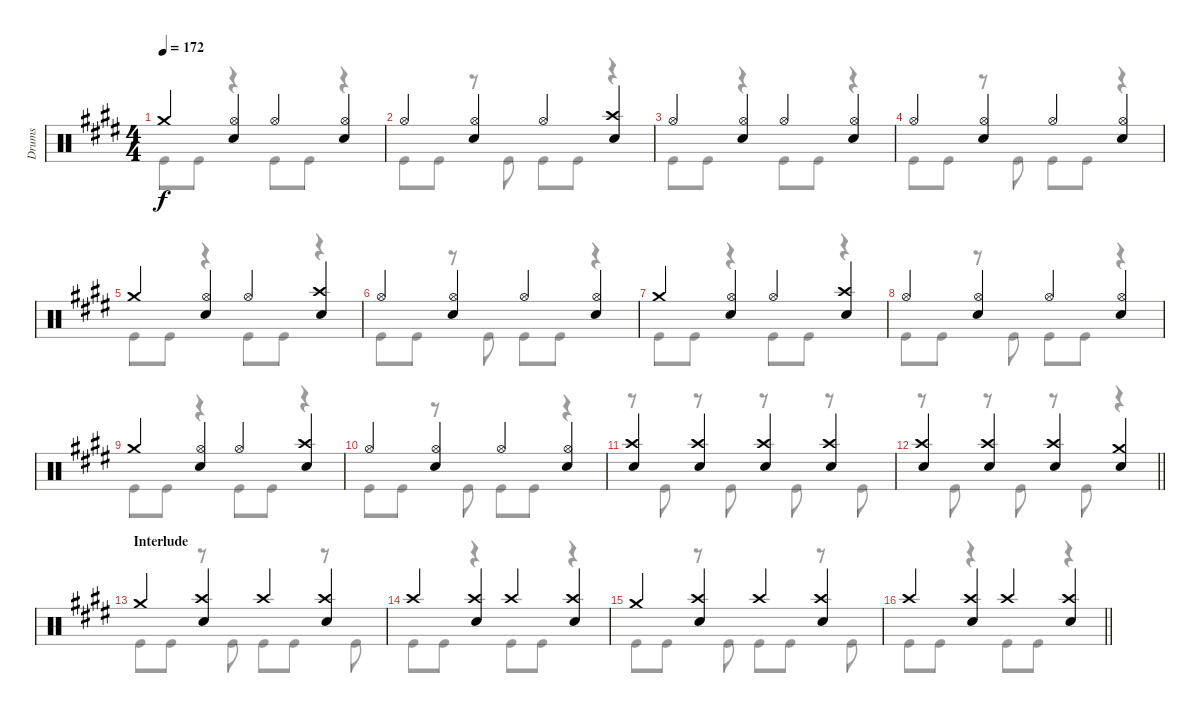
\track ("Drums" "Drums") {instrument percussion}
\staff {score}
\articulation defaults
\voice
\ts (4 4)
\tempo 172
\clef neutral
\ks e "Crash medium (hit)".4{dy f}
("Hi-Hat (open)" "Electric Snare (hit)").4 "Hi-Hat (open)".4 ("Hi-Hat (open)" "Electric Snare (hit)").4 |
"Hi-Hat (open)".4 ("Hi-Hat (open)" "Electric Snare (hit)").4 "Hi-Hat (open)".4 ("Crash high (hit)" "Electric Snare (hit)").4 |
"Hi-Hat (open)".4 ("Hi-Hat (open)" "Electric Snare (hit)").4 "Hi-Hat (open)".4 ("Hi-Hat (open)" "Electric Snare (hit)").4 |
"Hi-Hat (open)".4 ("Hi-Hat (open)" "Electric Snare (hit)").4 "Hi-Hat (open)".4 ("Hi-Hat (open)" "Electric Snare (hit)").4 |
"Crash medium (hit)".4 ("Hi-Hat (open)" "Electric Snare (hit)").4 "Hi-Hat (open)".4 ("Crash high (hit)" "Electric Snare (hit)").4 |
"Hi-Hat (open)".4 ("Hi-Hat (open)" "Electric Snare (hit)").4 "Hi-Hat (open)".4 ("Hi-Hat (open)" "Electric Snare (hit)").4 |
"Crash medium (hit)".4 ("Hi-Hat (open)" "Electric Snare (hit)").4 "Hi-Hat (open)".4 ("Crash high (hit)" "Electric Snare (hit)").4 |
"Hi-Hat (open)".4 ("Hi-Hat (open)" "Electric Snare (hit)").4 "Hi-Hat (open)".4 ("Hi-Hat (open)" "Electric Snare (hit)").4 |
"Crash medium (hit)".4 ("Hi-Hat (open)" "Electric Snare (hit)").4 "Hi-Hat (open)".4 ("Crash high (hit)" "Electric Snare (hit)").4 |
"Hi-Hat (open)".4 ("Hi-Hat (open)" "Electric Snare (hit)").4 "Hi-Hat (open)".4 ("Hi-Hat (open)" "Electric Snare (hit)").4 |
("Crash high (hit)" "Electric Snare (hit)").4 ("Crash high (hit)" "Electric Snare (hit)").4 ("Crash high (hit)" "Electric Snare (hit)").4 ("Crash high (hit)" "Electric Snare (hit)").4 |
\barLineRight lightlight
("Crash high (hit)" "Electric Snare (hit)").4 ("Crash high (hit)" "Electric Snare (hit)").4 ("Crash high (hit)" "Electric Snare (hit)").4 ("Crash medium (hit)" "Electric Snare (hit)").4 |
\section ("" "Interlude")
"Crash medium (hit)".4 ("Crash high (hit)" "Electric Snare (hit)").4 "Crash high (hit)".4 ("Crash high (hit)" "Electric Snare (hit)").4 |
"Crash high (hit)".4 ("Crash high (hit)" "Electric Snare (hit)").4 "Crash high (hit)".4 ("Crash high (hit)" "Electric Snare (hit)").4 |
"Crash medium (hit)".4 ("Crash high (hit)" "Electric Snare (hit)").4 "Crash high (hit)".4 ("Crash high (hit)" "Electric Snare (hit)").4 |
\barLineRight lightlight "Crash high (hit)".4
("Crash high (hit)" "Electric Snare (hit)").4 "Crash high (hit)".4 ("Crash high (hit)" "Electric Snare (hit)").4
\voice
\clef neutral
\ottava regular
\simile none
\ks e "Kick (hit)".8{dy f} "Kick (hit)".8
r.4 "Kick (hit)".8 "Kick (hit)".8 r.4 |
"Kick (hit)".8 "Kick (hit)".8 r.8 "Kick (hit)".8 "Kick (hit)".8 "Kick (hit)".8 r.4 |
"Kick (hit)".8 "Kick (hit)".8 r.4 "Kick (hit)".8 "Kick (hit)".8 r.4 |
"Kick (hit)".8 "Kick (hit)".8 r.8 "Kick (hit)".8 "Kick (hit)".8 "Kick (hit)".8 r.4 |
"Kick (hit)".8 "Kick (hit)".8 r.4 "Kick (hit)".8 "Kick (hit)".8 r.4 |
"Kick (hit)".8 "Kick (hit)".8 r.8 "Kick (hit)".8 "Kick (hit)".8 "Kick (hit)".8 r.4 |
"Kick (hit)".8 "Kick (hit)".8 r.4 "Kick (hit)".8 "Kick (hit)".8 r.4 |
"Kick (hit)".8 "Kick (hit)".8 r.8 "Kick (hit)".8 "Kick (hit)".8 "Kick (hit)".8 r.4 |
"Kick (hit)".8 "Kick (hit)".8 r.4 "Kick (hit)".8 "Kick (hit)".8 r.4 |
"Kick (hit)".8 "Kick (hit)".8 r.8 "Kick (hit)".8 "Kick (hit)".8 "Kick (hit)".8 r.4 |
r.8 "Kick (hit)".8 r.8 "Kick (hit)".8 r.8 "Kick (hit)".8 r.8 "Kick (hit)".8 |
\barLineRight lightlight
r.8 "Kick (hit)".8 r.8 "Kick (hit)".8 r.8 "Kick (hit)".8 r.4 |
"Kick (hit)".8 "Kick (hit)".8 r.8 "Kick (hit)".8 "Kick (hit)".8 "Kick (hit)".8 r.8 "Kick (hit)".8 |
"Kick (hit)".8 "Kick (hit)".8 r.4 "Kick (hit)".8 "Kick (hit)".8 r.4 |
"Kick (hit)".8 "Kick (hit)".8 r.8 "Kick (hit)".8 "Kick (hit)".8 "Kick (hit)".8 r.8 "Kick (hit)".8 |
\barLineRight lightlight "Kick (hit)".8 "Kick (hit)".8
r.4 "Kick (hit)".8 "Kick (hit)".8 r.4
